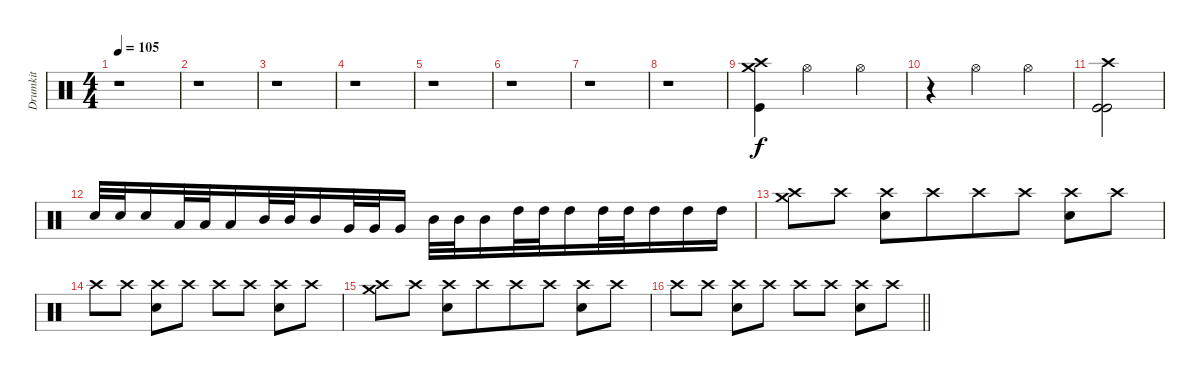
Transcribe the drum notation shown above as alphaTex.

\track ("Drumkit" "Drumkit") {instrument percussion}
\staff {score}
\articulation defaults
\ts (4 4)
\tempo 105
\clef neutral
\ks c
r.1{dy f} |
r.1 |
r.1 |
r.1 |
r.1 |
r.1 |
r.1 |
r.1 |
("Crash medium (hit)" "Crash high (hit)" "Kick (hit)").4 "Hi-Hat (open)".2 "Hi-Hat (open)".4 |
r.4 "Hi-Hat (open)".2 "Hi-Hat (open)".4 |
("Crash high (hit)" "Kick (hit)" "Kick (hit)").2 |
"Electric Snare (hit)".32 "Electric Snare (hit)".32 "Electric Snare (hit)".16 "Low Floor Tom (hit)".32{beam merge} "Low Floor Tom (hit)".32{beam merge} "Low Floor Tom (hit)".16{beam merge} "Mid Tom (hit)".32{beam merge} "Mid Tom (hit)".32 "Mid Tom (hit)".16{beam merge} "Very Low Tom (hit)".32 "Very Low Tom (hit)".32 "Very Low Tom (hit)".16 "Mid Tom (hit)".32 "Mid Tom (hit)".32{beam merge} "Mid Tom (hit)".16 "High Tom (hit)".32{beam merge} "High Tom (hit)".32 "High Tom (hit)".16{beam merge} "High Tom (hit)".32 "High Tom (hit)".32 "High Tom (hit)".16{beam merge} "High Tom (hit)".16 "High Tom (hit)".16 |
("Crash medium (hit)" "Crash high (hit)").8{beam merge} "Crash high (hit)".8 ("Crash high (hit)" "Electric Snare (hit)").8{beam merge} "Crash high (hit)".8{beam merge} "Crash high (hit)".8{beam merge} "Crash high (hit)".8 ("Crash high (hit)" "Electric Snare (hit)").8{beam merge} "Crash high (hit)".8 |
"Crash high (hit)".8 "Crash high (hit)".8 ("Crash high (hit)" "Electric Snare (hit)").8 "Crash high (hit)".8 "Crash high (hit)".8{beam merge} "Crash high (hit)".8 ("Crash high (hit)" "Electric Snare (hit)").8 "Crash high (hit)".8 |
("Crash medium (hit)" "Crash high (hit)").8{beam merge} "Crash high (hit)".8 ("Crash high (hit)" "Electric Snare (hit)").8{beam merge} "Crash high (hit)".8{beam merge} "Crash high (hit)".8{beam merge} "Crash high (hit)".8 ("Crash high (hit)" "Electric Snare (hit)").8{beam merge} "Crash high (hit)".8 |
\barLineRight lightlight "Crash high (hit)".8 "Crash high (hit)".8
("Crash high (hit)" "Electric Snare (hit)").8 "Crash high (hit)".8 "Crash high (hit)".8{beam merge} "Crash high (hit)".8 ("Crash high (hit)" "Electric Snare (hit)").8 "Crash high (hit)".8
